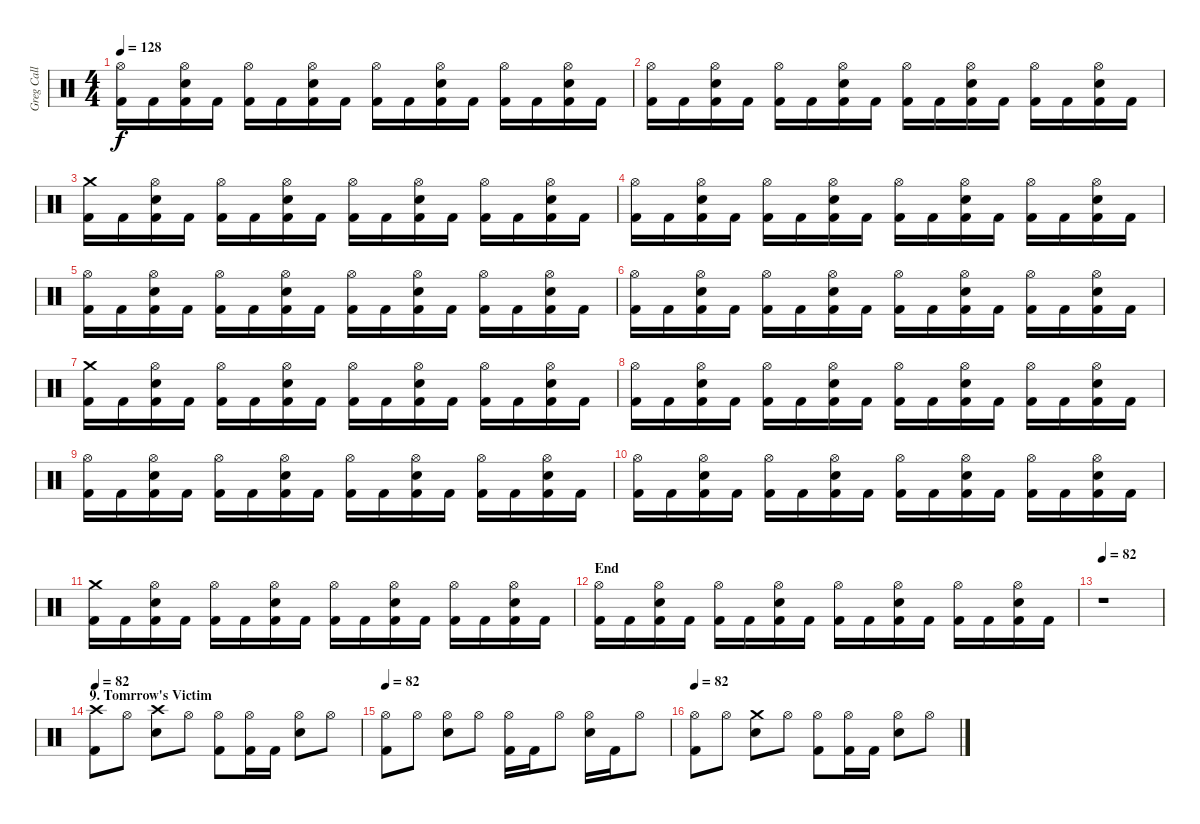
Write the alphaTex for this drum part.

\track ("Greg Call (Drums)" "Greg Call ") {instrument percussion}
\staff {score}
\articulation defaults
\ts (4 4)
\tempo 128
\clef neutral
\ks c
("Hi-Hat (open)" "Kick (hit) 2").16{dy f} "Kick (hit) 2".16 ("Hi-Hat (open)" "Snare (hit) 2" "Kick (hit) 2").16 "Kick (hit) 2".16 ("Hi-Hat (open)" "Kick (hit) 2").16 "Kick (hit) 2".16 ("Snare (hit) 2" "Hi-Hat (open)" "Kick (hit) 2").16 "Kick (hit) 2".16 ("Hi-Hat (open)" "Kick (hit) 2").16 "Kick (hit) 2".16 ("Snare (hit) 2" "Hi-Hat (open)" "Kick (hit) 2").16 "Kick (hit) 2".16 ("Hi-Hat (open)" "Kick (hit) 2").16 "Kick (hit) 2".16 ("Snare (hit) 2" "Hi-Hat (open)" "Kick (hit) 2").16 "Kick (hit) 2".16 |
("Hi-Hat (open)" "Kick (hit) 2").16 "Kick (hit) 2".16 ("Hi-Hat (open)" "Snare (hit) 2" "Kick (hit) 2").16 "Kick (hit) 2".16 ("Hi-Hat (open)" "Kick (hit) 2").16 "Kick (hit) 2".16 ("Snare (hit) 2" "Hi-Hat (open)" "Kick (hit) 2").16 "Kick (hit) 2".16 ("Hi-Hat (open)" "Kick (hit) 2").16 "Kick (hit) 2".16 ("Snare (hit) 2" "Hi-Hat (open)" "Kick (hit) 2").16 "Kick (hit) 2".16 ("Hi-Hat (open)" "Kick (hit) 2").16 "Kick (hit) 2".16 ("Snare (hit) 2" "Hi-Hat (open)" "Kick (hit) 2").16 "Kick (hit) 2".16 |
("Crash medium (hit)" "Kick (hit) 2").16 "Kick (hit) 2".16 ("Hi-Hat (open)" "Snare (hit) 2" "Kick (hit) 2").16 "Kick (hit) 2".16 ("Hi-Hat (open)" "Kick (hit) 2").16 "Kick (hit) 2".16 ("Snare (hit) 2" "Hi-Hat (open)" "Kick (hit) 2").16 "Kick (hit) 2".16 ("Hi-Hat (open)" "Kick (hit) 2").16 "Kick (hit) 2".16 ("Snare (hit) 2" "Hi-Hat (open)" "Kick (hit) 2").16 "Kick (hit) 2".16 ("Hi-Hat (open)" "Kick (hit) 2").16 "Kick (hit) 2".16 ("Snare (hit) 2" "Hi-Hat (open)" "Kick (hit) 2").16 "Kick (hit) 2".16 |
("Hi-Hat (open)" "Kick (hit) 2").16 "Kick (hit) 2".16 ("Hi-Hat (open)" "Snare (hit) 2" "Kick (hit) 2").16 "Kick (hit) 2".16 ("Hi-Hat (open)" "Kick (hit) 2").16 "Kick (hit) 2".16 ("Snare (hit) 2" "Hi-Hat (open)" "Kick (hit) 2").16 "Kick (hit) 2".16 ("Hi-Hat (open)" "Kick (hit) 2").16 "Kick (hit) 2".16 ("Snare (hit) 2" "Hi-Hat (open)" "Kick (hit) 2").16 "Kick (hit) 2".16 ("Hi-Hat (open)" "Kick (hit) 2").16 "Kick (hit) 2".16 ("Snare (hit) 2" "Hi-Hat (open)" "Kick (hit) 2").16 "Kick (hit) 2".16 |
("Hi-Hat (open)" "Kick (hit) 2").16 "Kick (hit) 2".16 ("Hi-Hat (open)" "Snare (hit) 2" "Kick (hit) 2").16 "Kick (hit) 2".16 ("Hi-Hat (open)" "Kick (hit) 2").16 "Kick (hit) 2".16 ("Snare (hit) 2" "Hi-Hat (open)" "Kick (hit) 2").16 "Kick (hit) 2".16 ("Hi-Hat (open)" "Kick (hit) 2").16 "Kick (hit) 2".16 ("Snare (hit) 2" "Hi-Hat (open)" "Kick (hit) 2").16 "Kick (hit) 2".16 ("Hi-Hat (open)" "Kick (hit) 2").16 "Kick (hit) 2".16 ("Snare (hit) 2" "Hi-Hat (open)" "Kick (hit) 2").16 "Kick (hit) 2".16 |
("Hi-Hat (open)" "Kick (hit) 2").16 "Kick (hit) 2".16 ("Hi-Hat (open)" "Snare (hit) 2" "Kick (hit) 2").16 "Kick (hit) 2".16 ("Hi-Hat (open)" "Kick (hit) 2").16 "Kick (hit) 2".16 ("Snare (hit) 2" "Hi-Hat (open)" "Kick (hit) 2").16 "Kick (hit) 2".16 ("Hi-Hat (open)" "Kick (hit) 2").16 "Kick (hit) 2".16 ("Snare (hit) 2" "Hi-Hat (open)" "Kick (hit) 2").16 "Kick (hit) 2".16 ("Hi-Hat (open)" "Kick (hit) 2").16 "Kick (hit) 2".16 ("Snare (hit) 2" "Hi-Hat (open)" "Kick (hit) 2").16 "Kick (hit) 2".16 |
("Crash medium (hit)" "Kick (hit) 2").16 "Kick (hit) 2".16 ("Hi-Hat (open)" "Snare (hit) 2" "Kick (hit) 2").16 "Kick (hit) 2".16 ("Hi-Hat (open)" "Kick (hit) 2").16 "Kick (hit) 2".16 ("Snare (hit) 2" "Hi-Hat (open)" "Kick (hit) 2").16 "Kick (hit) 2".16 ("Hi-Hat (open)" "Kick (hit) 2").16 "Kick (hit) 2".16 ("Snare (hit) 2" "Hi-Hat (open)" "Kick (hit) 2").16 "Kick (hit) 2".16 ("Hi-Hat (open)" "Kick (hit) 2").16 "Kick (hit) 2".16 ("Snare (hit) 2" "Hi-Hat (open)" "Kick (hit) 2").16 "Kick (hit) 2".16 |
("Hi-Hat (open)" "Kick (hit) 2").16 "Kick (hit) 2".16 ("Hi-Hat (open)" "Snare (hit) 2" "Kick (hit) 2").16 "Kick (hit) 2".16 ("Hi-Hat (open)" "Kick (hit) 2").16 "Kick (hit) 2".16 ("Snare (hit) 2" "Hi-Hat (open)" "Kick (hit) 2").16 "Kick (hit) 2".16 ("Hi-Hat (open)" "Kick (hit) 2").16 "Kick (hit) 2".16 ("Snare (hit) 2" "Hi-Hat (open)" "Kick (hit) 2").16 "Kick (hit) 2".16 ("Hi-Hat (open)" "Kick (hit) 2").16 "Kick (hit) 2".16 ("Snare (hit) 2" "Hi-Hat (open)" "Kick (hit) 2").16 "Kick (hit) 2".16 |
("Hi-Hat (open)" "Kick (hit) 2").16 "Kick (hit) 2".16 ("Hi-Hat (open)" "Snare (hit) 2" "Kick (hit) 2").16 "Kick (hit) 2".16 ("Hi-Hat (open)" "Kick (hit) 2").16 "Kick (hit) 2".16 ("Snare (hit) 2" "Hi-Hat (open)" "Kick (hit) 2").16 "Kick (hit) 2".16 ("Hi-Hat (open)" "Kick (hit) 2").16 "Kick (hit) 2".16 ("Snare (hit) 2" "Hi-Hat (open)" "Kick (hit) 2").16 "Kick (hit) 2".16 ("Hi-Hat (open)" "Kick (hit) 2").16 "Kick (hit) 2".16 ("Snare (hit) 2" "Hi-Hat (open)" "Kick (hit) 2").16 "Kick (hit) 2".16 |
("Hi-Hat (open)" "Kick (hit) 2").16 "Kick (hit) 2".16 ("Hi-Hat (open)" "Snare (hit) 2" "Kick (hit) 2").16 "Kick (hit) 2".16 ("Hi-Hat (open)" "Kick (hit) 2").16 "Kick (hit) 2".16 ("Snare (hit) 2" "Hi-Hat (open)" "Kick (hit) 2").16 "Kick (hit) 2".16 ("Hi-Hat (open)" "Kick (hit) 2").16 "Kick (hit) 2".16 ("Snare (hit) 2" "Hi-Hat (open)" "Kick (hit) 2").16 "Kick (hit) 2".16 ("Hi-Hat (open)" "Kick (hit) 2").16 "Kick (hit) 2".16 ("Snare (hit) 2" "Hi-Hat (open)" "Kick (hit) 2").16 "Kick (hit) 2".16 |
("Crash medium (hit)" "Kick (hit) 2").16 "Kick (hit) 2".16 ("Hi-Hat (open)" "Snare (hit) 2" "Kick (hit) 2").16 "Kick (hit) 2".16 ("Hi-Hat (open)" "Kick (hit) 2").16 "Kick (hit) 2".16 ("Snare (hit) 2" "Hi-Hat (open)" "Kick (hit) 2").16 "Kick (hit) 2".16 ("Hi-Hat (open)" "Kick (hit) 2").16 "Kick (hit) 2".16 ("Snare (hit) 2" "Hi-Hat (open)" "Kick (hit) 2").16 "Kick (hit) 2".16 ("Hi-Hat (open)" "Kick (hit) 2").16 "Kick (hit) 2".16 ("Snare (hit) 2" "Hi-Hat (open)" "Kick (hit) 2").16 "Kick (hit) 2".16 |
\section ("" "End")
("Hi-Hat (open)" "Kick (hit) 2").16 "Kick (hit) 2".16 ("Hi-Hat (open)" "Snare (hit) 2" "Kick (hit) 2").16 "Kick (hit) 2".16 ("Hi-Hat (open)" "Kick (hit) 2").16 "Kick (hit) 2".16 ("Snare (hit) 2" "Hi-Hat (open)" "Kick (hit) 2").16 "Kick (hit) 2".16 ("Hi-Hat (open)" "Kick (hit) 2").16 "Kick (hit) 2".16 ("Snare (hit) 2" "Hi-Hat (open)" "Kick (hit) 2").16 "Kick (hit) 2".16 ("Hi-Hat (open)" "Kick (hit) 2").16 "Kick (hit) 2".16 ("Snare (hit) 2" "Hi-Hat (open)" "Kick (hit) 2").16 "Kick (hit) 2".16 |
\tempo 82
r.1 |
\section ("" "9. Tomrrow's Victim")
\tempo 82
("Crash high (hit)" "Kick (hit) 2").8 "Hi-Hat (open)".8 ("Crash high (hit)" "Snare (hit) 2").8 "Hi-Hat (open)".8 ("Hi-Hat (open)" "Kick (hit) 2").8 ("Hi-Hat (open)" "Kick (hit) 2").16 "Kick (hit) 2".16 ("Hi-Hat (open)" "Snare (hit) 2").8 "Hi-Hat (open)".8 |
\tempo 82
("Hi-Hat (open)" "Kick (hit) 2").8 "Hi-Hat (open)".8 ("Hi-Hat (open)" "Snare (hit) 2").8 "Hi-Hat (open)".8 ("Hi-Hat (open)" "Kick (hit) 2").16 "Kick (hit) 2".16 "Hi-Hat (open)".8 ("Hi-Hat (open)" "Snare (hit) 2").16 "Kick (hit) 2".16 "Hi-Hat (open)".8 |
\tempo 82
("Hi-Hat (open)" "Kick (hit) 2").8 "Hi-Hat (open)".8 ("Crash medium (hit)" "Snare (hit) 2").8 "Hi-Hat (open)".8 ("Hi-Hat (open)" "Kick (hit) 2").8 ("Hi-Hat (open)" "Kick (hit) 2").16 "Kick (hit) 2".16 ("Hi-Hat (open)" "Snare (hit) 2").8 "Hi-Hat (open)".8
